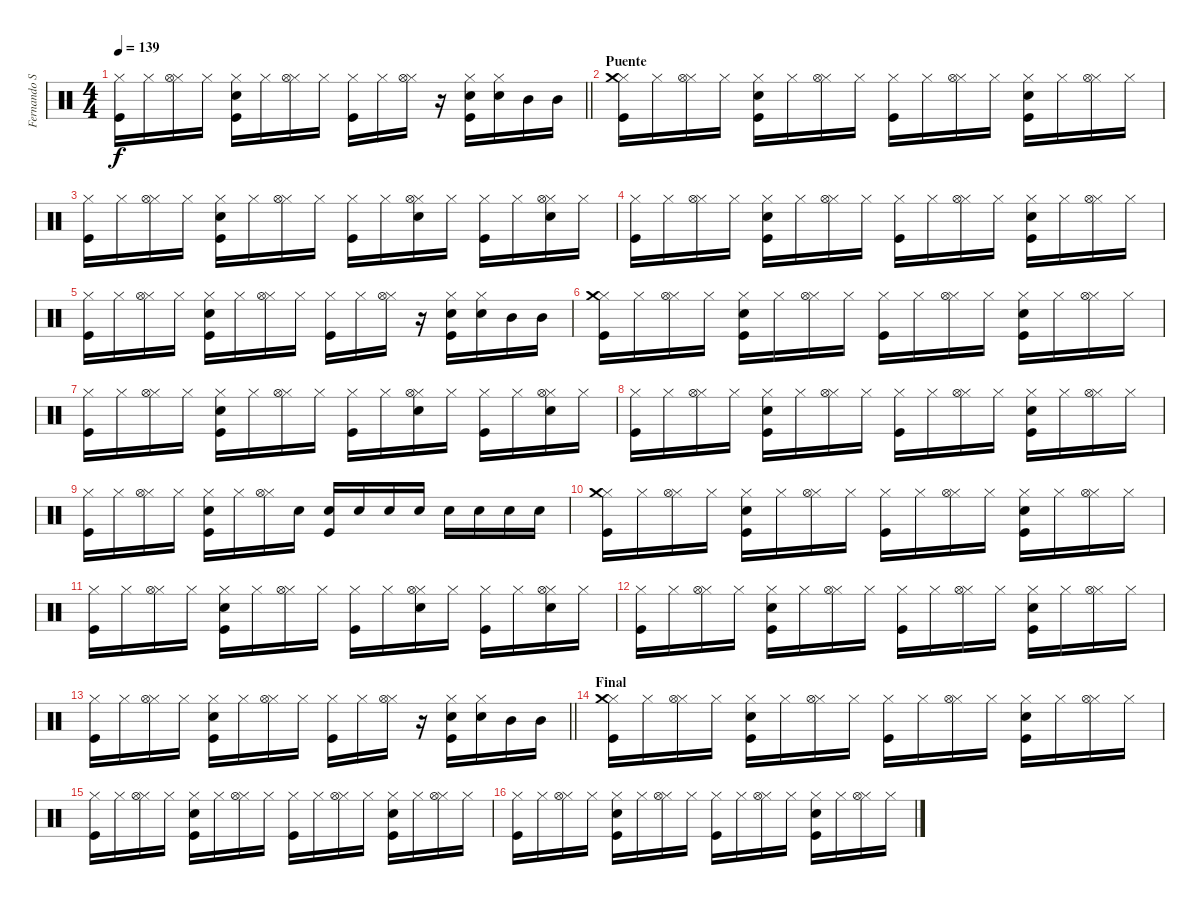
\track ("Fernando Samalea (Bateria)" "Fernando S") {instrument percussion}
\staff {score}
\articulation defaults
\ts (4 4)
\tempo 139
\clef neutral
\barLineRight lightlight
\ks c
("Kick (hit)" "Hi-Hat (closed)").16{dy f} "Hi-Hat (closed)".16 ("Hi-Hat (closed)" "Hi-Hat (open)").16 "Hi-Hat (closed)".16 ("Kick (hit)" "Snare (hit) 2" "Hi-Hat (closed)").16 "Hi-Hat (closed)".16 ("Hi-Hat (closed)" "Hi-Hat (open)").16 "Hi-Hat (closed)".16 ("Kick (hit)" "Hi-Hat (closed)").16 "Hi-Hat (closed)".16 ("Hi-Hat (closed)" "Hi-Hat (open)").16 r.16 ("Kick (hit)" "Snare (hit) 2" "Hi-Hat (closed)").16 ("Snare (hit) 2" "Hi-Hat (closed)").16 "Mid Tom (hit)".16 "Mid Tom (hit)".16 |
\section ("" "Puente")
("Kick (hit)" "Hi-Hat (closed)" "Crash medium (hit)").16 "Hi-Hat (closed)".16 ("Hi-Hat (closed)" "Hi-Hat (open)").16 "Hi-Hat (closed)".16 ("Kick (hit)" "Snare (hit) 2" "Hi-Hat (closed)").16 "Hi-Hat (closed)".16 ("Hi-Hat (closed)" "Hi-Hat (open)").16 "Hi-Hat (closed)".16 ("Kick (hit)" "Hi-Hat (closed)").16 "Hi-Hat (closed)".16 ("Hi-Hat (closed)" "Hi-Hat (open)").16 "Hi-Hat (closed)".16 ("Kick (hit)" "Snare (hit) 2" "Hi-Hat (closed)").16 "Hi-Hat (closed)".16 ("Hi-Hat (closed)" "Hi-Hat (open)").16 "Hi-Hat (closed)".16 |
("Kick (hit)" "Hi-Hat (closed)").16 "Hi-Hat (closed)".16 ("Hi-Hat (closed)" "Hi-Hat (open)").16 "Hi-Hat (closed)".16 ("Kick (hit)" "Snare (hit) 2" "Hi-Hat (closed)").16 "Hi-Hat (closed)".16 ("Hi-Hat (closed)" "Hi-Hat (open)").16 "Hi-Hat (closed)".16 ("Kick (hit)" "Hi-Hat (closed)").16 "Hi-Hat (closed)".16 ("Snare (hit) 2" "Hi-Hat (closed)" "Hi-Hat (open)").16 "Hi-Hat (closed)".16 ("Kick (hit)" "Hi-Hat (closed)").16 "Hi-Hat (closed)".16 ("Snare (hit) 2" "Hi-Hat (closed)" "Hi-Hat (open)").16 "Hi-Hat (closed)".16 |
("Kick (hit)" "Hi-Hat (closed)").16 "Hi-Hat (closed)".16 ("Hi-Hat (closed)" "Hi-Hat (open)").16 "Hi-Hat (closed)".16 ("Kick (hit)" "Snare (hit) 2" "Hi-Hat (closed)").16 "Hi-Hat (closed)".16 ("Hi-Hat (closed)" "Hi-Hat (open)").16 "Hi-Hat (closed)".16 ("Kick (hit)" "Hi-Hat (closed)").16 "Hi-Hat (closed)".16 ("Hi-Hat (closed)" "Hi-Hat (open)").16 "Hi-Hat (closed)".16 ("Kick (hit)" "Snare (hit) 2" "Hi-Hat (closed)").16 "Hi-Hat (closed)".16 ("Hi-Hat (closed)" "Hi-Hat (open)").16 "Hi-Hat (closed)".16 |
("Kick (hit)" "Hi-Hat (closed)").16 "Hi-Hat (closed)".16 ("Hi-Hat (closed)" "Hi-Hat (open)").16 "Hi-Hat (closed)".16 ("Kick (hit)" "Snare (hit) 2" "Hi-Hat (closed)").16 "Hi-Hat (closed)".16 ("Hi-Hat (closed)" "Hi-Hat (open)").16 "Hi-Hat (closed)".16 ("Kick (hit)" "Hi-Hat (closed)").16 "Hi-Hat (closed)".16 ("Hi-Hat (closed)" "Hi-Hat (open)").16 r.16 ("Kick (hit)" "Snare (hit) 2" "Hi-Hat (closed)").16 ("Snare (hit) 2" "Hi-Hat (closed)").16 "Mid Tom (hit)".16 "Mid Tom (hit)".16 |
("Kick (hit)" "Hi-Hat (closed)" "Crash medium (hit)").16 "Hi-Hat (closed)".16 ("Hi-Hat (closed)" "Hi-Hat (open)").16 "Hi-Hat (closed)".16 ("Kick (hit)" "Snare (hit) 2" "Hi-Hat (closed)").16 "Hi-Hat (closed)".16 ("Hi-Hat (closed)" "Hi-Hat (open)").16 "Hi-Hat (closed)".16 ("Kick (hit)" "Hi-Hat (closed)").16 "Hi-Hat (closed)".16 ("Hi-Hat (closed)" "Hi-Hat (open)").16 "Hi-Hat (closed)".16 ("Kick (hit)" "Snare (hit) 2" "Hi-Hat (closed)").16 "Hi-Hat (closed)".16 ("Hi-Hat (closed)" "Hi-Hat (open)").16 "Hi-Hat (closed)".16 |
("Kick (hit)" "Hi-Hat (closed)").16 "Hi-Hat (closed)".16 ("Hi-Hat (closed)" "Hi-Hat (open)").16 "Hi-Hat (closed)".16 ("Kick (hit)" "Snare (hit) 2" "Hi-Hat (closed)").16 "Hi-Hat (closed)".16 ("Hi-Hat (closed)" "Hi-Hat (open)").16 "Hi-Hat (closed)".16 ("Kick (hit)" "Hi-Hat (closed)").16 "Hi-Hat (closed)".16 ("Snare (hit) 2" "Hi-Hat (closed)" "Hi-Hat (open)").16 "Hi-Hat (closed)".16 ("Kick (hit)" "Hi-Hat (closed)").16 "Hi-Hat (closed)".16 ("Snare (hit) 2" "Hi-Hat (closed)" "Hi-Hat (open)").16 "Hi-Hat (closed)".16 |
("Kick (hit)" "Hi-Hat (closed)").16 "Hi-Hat (closed)".16 ("Hi-Hat (closed)" "Hi-Hat (open)").16 "Hi-Hat (closed)".16 ("Kick (hit)" "Snare (hit) 2" "Hi-Hat (closed)").16 "Hi-Hat (closed)".16 ("Hi-Hat (closed)" "Hi-Hat (open)").16 "Hi-Hat (closed)".16 ("Kick (hit)" "Hi-Hat (closed)").16 "Hi-Hat (closed)".16 ("Hi-Hat (closed)" "Hi-Hat (open)").16 "Hi-Hat (closed)".16 ("Kick (hit)" "Snare (hit) 2" "Hi-Hat (closed)").16 "Hi-Hat (closed)".16 ("Hi-Hat (closed)" "Hi-Hat (open)").16 "Hi-Hat (closed)".16 |
("Kick (hit)" "Hi-Hat (closed)").16 "Hi-Hat (closed)".16 ("Hi-Hat (closed)" "Hi-Hat (open)").16 "Hi-Hat (closed)".16 ("Kick (hit)" "Snare (hit) 2" "Hi-Hat (closed)").16 "Hi-Hat (closed)".16 ("Hi-Hat (closed)" "Hi-Hat (open)").16 "Snare (hit) 2".16 ("Kick (hit)" "Snare (hit) 2").16 "Snare (hit) 2".16 "Snare (hit) 2".16 "Snare (hit) 2".16 "Snare (hit) 2".16 "Snare (hit) 2".16 "Snare (hit) 2".16 "Snare (hit) 2".16 |
("Kick (hit)" "Hi-Hat (closed)" "Crash medium (hit)").16 "Hi-Hat (closed)".16 ("Hi-Hat (closed)" "Hi-Hat (open)").16 "Hi-Hat (closed)".16 ("Kick (hit)" "Snare (hit) 2" "Hi-Hat (closed)").16 "Hi-Hat (closed)".16 ("Hi-Hat (closed)" "Hi-Hat (open)").16 "Hi-Hat (closed)".16 ("Kick (hit)" "Hi-Hat (closed)").16 "Hi-Hat (closed)".16 ("Hi-Hat (closed)" "Hi-Hat (open)").16 "Hi-Hat (closed)".16 ("Kick (hit)" "Snare (hit) 2" "Hi-Hat (closed)").16 "Hi-Hat (closed)".16 ("Hi-Hat (closed)" "Hi-Hat (open)").16 "Hi-Hat (closed)".16 |
("Kick (hit)" "Hi-Hat (closed)").16 "Hi-Hat (closed)".16 ("Hi-Hat (closed)" "Hi-Hat (open)").16 "Hi-Hat (closed)".16 ("Kick (hit)" "Snare (hit) 2" "Hi-Hat (closed)").16 "Hi-Hat (closed)".16 ("Hi-Hat (closed)" "Hi-Hat (open)").16 "Hi-Hat (closed)".16 ("Kick (hit)" "Hi-Hat (closed)").16 "Hi-Hat (closed)".16 ("Snare (hit) 2" "Hi-Hat (closed)" "Hi-Hat (open)").16 "Hi-Hat (closed)".16 ("Kick (hit)" "Hi-Hat (closed)").16 "Hi-Hat (closed)".16 ("Snare (hit) 2" "Hi-Hat (closed)" "Hi-Hat (open)").16 "Hi-Hat (closed)".16 |
("Kick (hit)" "Hi-Hat (closed)").16 "Hi-Hat (closed)".16 ("Hi-Hat (closed)" "Hi-Hat (open)").16 "Hi-Hat (closed)".16 ("Kick (hit)" "Snare (hit) 2" "Hi-Hat (closed)").16 "Hi-Hat (closed)".16 ("Hi-Hat (closed)" "Hi-Hat (open)").16 "Hi-Hat (closed)".16 ("Kick (hit)" "Hi-Hat (closed)").16 "Hi-Hat (closed)".16 ("Hi-Hat (closed)" "Hi-Hat (open)").16 "Hi-Hat (closed)".16 ("Kick (hit)" "Snare (hit) 2" "Hi-Hat (closed)").16 "Hi-Hat (closed)".16 ("Hi-Hat (closed)" "Hi-Hat (open)").16 "Hi-Hat (closed)".16 |
\barLineRight lightlight
("Kick (hit)" "Hi-Hat (closed)").16 "Hi-Hat (closed)".16 ("Hi-Hat (closed)" "Hi-Hat (open)").16 "Hi-Hat (closed)".16 ("Kick (hit)" "Snare (hit) 2" "Hi-Hat (closed)").16 "Hi-Hat (closed)".16 ("Hi-Hat (closed)" "Hi-Hat (open)").16 "Hi-Hat (closed)".16 ("Kick (hit)" "Hi-Hat (closed)").16 "Hi-Hat (closed)".16 ("Hi-Hat (closed)" "Hi-Hat (open)").16 r.16 ("Kick (hit)" "Snare (hit) 2" "Hi-Hat (closed)").16 ("Snare (hit) 2" "Hi-Hat (closed)").16 "Mid Tom (hit)".16 "Mid Tom (hit)".16 |
\section ("" "Final")
("Kick (hit)" "Hi-Hat (closed)" "Crash medium (hit)").16 "Hi-Hat (closed)".16 ("Hi-Hat (closed)" "Hi-Hat (open)").16 "Hi-Hat (closed)".16 ("Kick (hit)" "Snare (hit) 2" "Hi-Hat (closed)").16 "Hi-Hat (closed)".16 ("Hi-Hat (closed)" "Hi-Hat (open)").16 "Hi-Hat (closed)".16 ("Kick (hit)" "Hi-Hat (closed)").16 "Hi-Hat (closed)".16 ("Hi-Hat (closed)" "Hi-Hat (open)").16 "Hi-Hat (closed)".16 ("Kick (hit)" "Snare (hit) 2" "Hi-Hat (closed)").16 "Hi-Hat (closed)".16 ("Hi-Hat (closed)" "Hi-Hat (open)").16 "Hi-Hat (closed)".16 |
("Kick (hit)" "Hi-Hat (closed)").16 "Hi-Hat (closed)".16 ("Hi-Hat (closed)" "Hi-Hat (open)").16 "Hi-Hat (closed)".16 ("Kick (hit)" "Snare (hit) 2" "Hi-Hat (closed)").16 "Hi-Hat (closed)".16 ("Hi-Hat (closed)" "Hi-Hat (open)").16 "Hi-Hat (closed)".16 ("Kick (hit)" "Hi-Hat (closed)").16 "Hi-Hat (closed)".16 ("Hi-Hat (closed)" "Hi-Hat (open)").16 "Hi-Hat (closed)".16 ("Kick (hit)" "Snare (hit) 2" "Hi-Hat (closed)").16 "Hi-Hat (closed)".16 ("Hi-Hat (closed)" "Hi-Hat (open)").16 "Hi-Hat (closed)".16 |
("Kick (hit)" "Hi-Hat (closed)").16 "Hi-Hat (closed)".16 ("Hi-Hat (closed)" "Hi-Hat (open)").16 "Hi-Hat (closed)".16 ("Kick (hit)" "Snare (hit) 2" "Hi-Hat (closed)").16 "Hi-Hat (closed)".16 ("Hi-Hat (closed)" "Hi-Hat (open)").16 "Hi-Hat (closed)".16 ("Kick (hit)" "Hi-Hat (closed)").16 "Hi-Hat (closed)".16 ("Hi-Hat (closed)" "Hi-Hat (open)").16 "Hi-Hat (closed)".16 ("Kick (hit)" "Snare (hit) 2" "Hi-Hat (closed)").16 "Hi-Hat (closed)".16 ("Hi-Hat (closed)" "Hi-Hat (open)").16 "Hi-Hat (closed)".16
